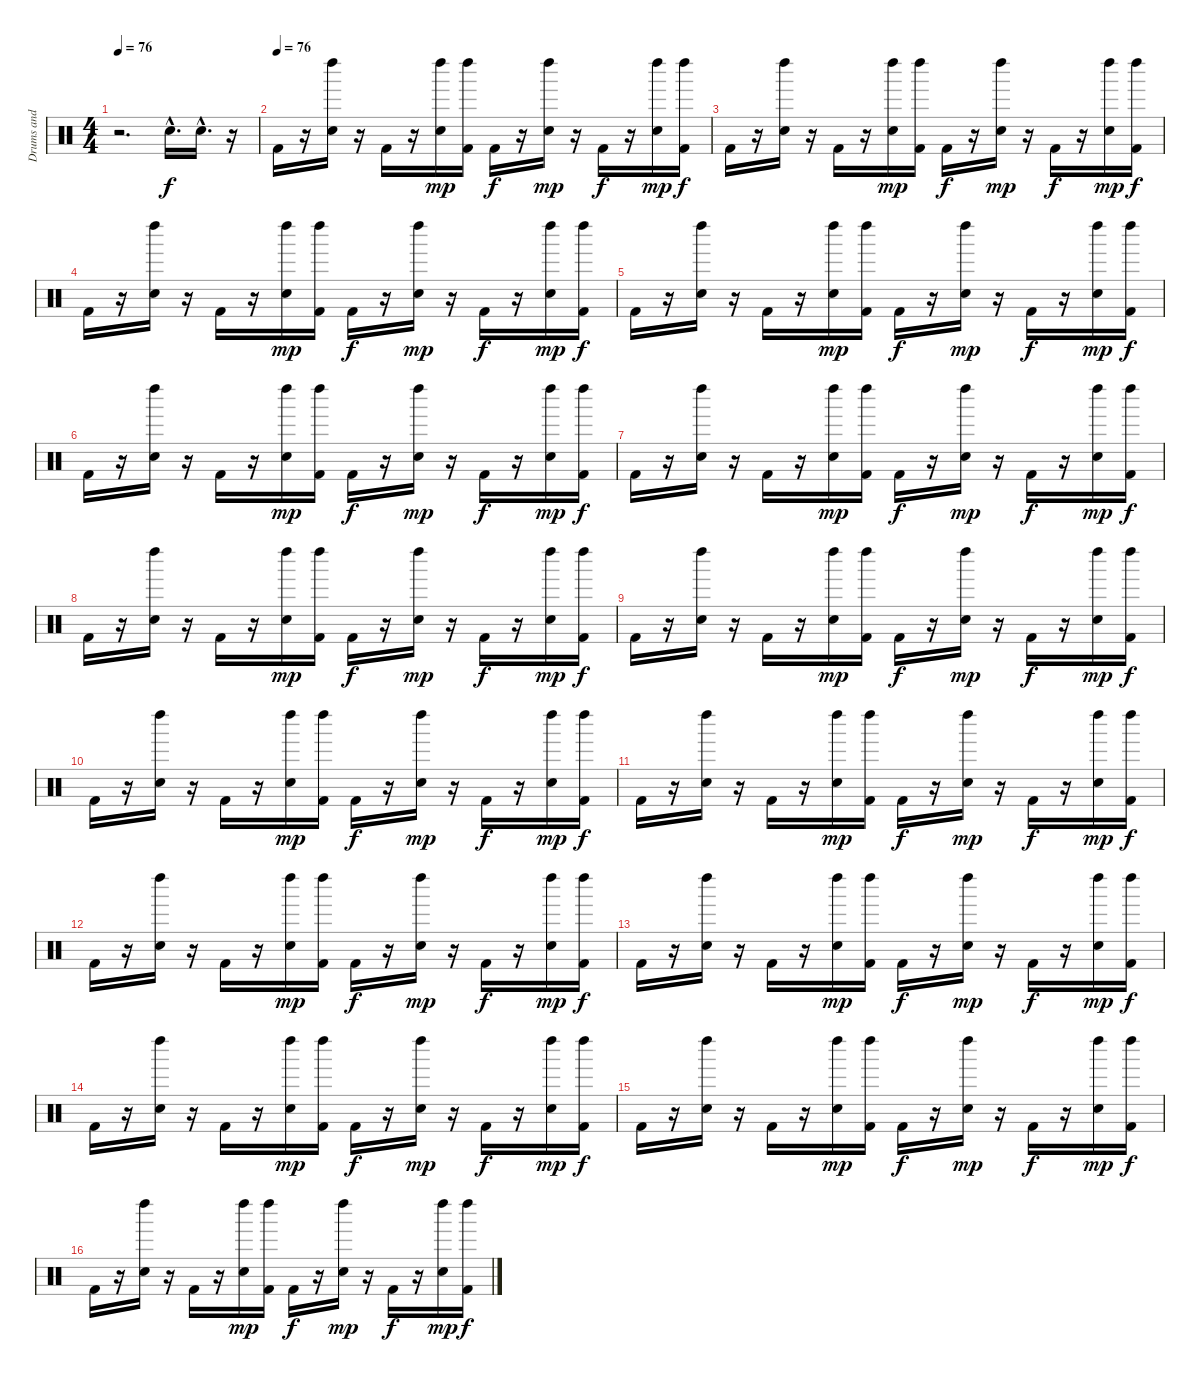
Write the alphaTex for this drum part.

\track ("Drums and Percussion" "Drums and ") {instrument percussion}
\staff {score}
\articulation defaults
\ts (4 4)
\tempo 76
\clef neutral
\ks c
r.2{d dy f} "Snare (hit) 2"{hac}.16{d} "Snare (hit) 2"{hac}.16{d} r.16 |
\tempo (76)
"Kick (hit) 2".16 r.16 ("Snare (hit) 2" "Left Maraca (hit)").16 r.16 "Kick (hit) 2".16 r.16 ("Snare (hit) 2" "Left Maraca (hit)").16{dy mp} ("Left Maraca (hit)" "Kick (hit) 2").16 "Kick (hit) 2".16{dy f} r.16 ("Snare (hit) 2" "Left Maraca (hit)").16{dy mp} r.16 "Kick (hit) 2".16{dy f} r.16 ("Snare (hit) 2" "Left Maraca (hit)").16{dy mp} ("Left Maraca (hit)" "Kick (hit) 2").16{dy f} |
"Kick (hit) 2".16 r.16 ("Snare (hit) 2" "Left Maraca (hit)").16 r.16 "Kick (hit) 2".16 r.16 ("Snare (hit) 2" "Left Maraca (hit)").16{dy mp} ("Left Maraca (hit)" "Kick (hit) 2").16 "Kick (hit) 2".16{dy f} r.16 ("Snare (hit) 2" "Left Maraca (hit)").16{dy mp} r.16 "Kick (hit) 2".16{dy f} r.16 ("Snare (hit) 2" "Left Maraca (hit)").16{dy mp} ("Left Maraca (hit)" "Kick (hit) 2").16{dy f} |
"Kick (hit) 2".16 r.16 ("Snare (hit) 2" "Left Maraca (hit)").16 r.16 "Kick (hit) 2".16 r.16 ("Snare (hit) 2" "Left Maraca (hit)").16{dy mp} ("Left Maraca (hit)" "Kick (hit) 2").16 "Kick (hit) 2".16{dy f} r.16 ("Snare (hit) 2" "Left Maraca (hit)").16{dy mp} r.16 "Kick (hit) 2".16{dy f} r.16 ("Snare (hit) 2" "Left Maraca (hit)").16{dy mp} ("Left Maraca (hit)" "Kick (hit) 2").16{dy f} |
"Kick (hit) 2".16 r.16 ("Snare (hit) 2" "Left Maraca (hit)").16 r.16 "Kick (hit) 2".16 r.16 ("Snare (hit) 2" "Left Maraca (hit)").16{dy mp} ("Left Maraca (hit)" "Kick (hit) 2").16 "Kick (hit) 2".16{dy f} r.16 ("Snare (hit) 2" "Left Maraca (hit)").16{dy mp} r.16 "Kick (hit) 2".16{dy f} r.16 ("Snare (hit) 2" "Left Maraca (hit)").16{dy mp} ("Left Maraca (hit)" "Kick (hit) 2").16{dy f} |
"Kick (hit) 2".16 r.16 ("Snare (hit) 2" "Left Maraca (hit)").16 r.16 "Kick (hit) 2".16 r.16 ("Snare (hit) 2" "Left Maraca (hit)").16{dy mp} ("Left Maraca (hit)" "Kick (hit) 2").16 "Kick (hit) 2".16{dy f} r.16 ("Snare (hit) 2" "Left Maraca (hit)").16{dy mp} r.16 "Kick (hit) 2".16{dy f} r.16 ("Snare (hit) 2" "Left Maraca (hit)").16{dy mp} ("Left Maraca (hit)" "Kick (hit) 2").16{dy f} |
"Kick (hit) 2".16 r.16 ("Snare (hit) 2" "Left Maraca (hit)").16 r.16 "Kick (hit) 2".16 r.16 ("Snare (hit) 2" "Left Maraca (hit)").16{dy mp} ("Left Maraca (hit)" "Kick (hit) 2").16 "Kick (hit) 2".16{dy f} r.16 ("Snare (hit) 2" "Left Maraca (hit)").16{dy mp} r.16 "Kick (hit) 2".16{dy f} r.16 ("Snare (hit) 2" "Left Maraca (hit)").16{dy mp} ("Left Maraca (hit)" "Kick (hit) 2").16{dy f} |
"Kick (hit) 2".16 r.16 ("Snare (hit) 2" "Left Maraca (hit)").16 r.16 "Kick (hit) 2".16 r.16 ("Snare (hit) 2" "Left Maraca (hit)").16{dy mp} ("Left Maraca (hit)" "Kick (hit) 2").16 "Kick (hit) 2".16{dy f} r.16 ("Snare (hit) 2" "Left Maraca (hit)").16{dy mp} r.16 "Kick (hit) 2".16{dy f} r.16 ("Snare (hit) 2" "Left Maraca (hit)").16{dy mp} ("Left Maraca (hit)" "Kick (hit) 2").16{dy f} |
"Kick (hit) 2".16 r.16 ("Snare (hit) 2" "Left Maraca (hit)").16 r.16 "Kick (hit) 2".16 r.16 ("Snare (hit) 2" "Left Maraca (hit)").16{dy mp} ("Left Maraca (hit)" "Kick (hit) 2").16 "Kick (hit) 2".16{dy f} r.16 ("Snare (hit) 2" "Left Maraca (hit)").16{dy mp} r.16 "Kick (hit) 2".16{dy f} r.16 ("Snare (hit) 2" "Left Maraca (hit)").16{dy mp} ("Left Maraca (hit)" "Kick (hit) 2").16{dy f} |
"Kick (hit) 2".16 r.16 ("Snare (hit) 2" "Left Maraca (hit)").16 r.16 "Kick (hit) 2".16 r.16 ("Snare (hit) 2" "Left Maraca (hit)").16{dy mp} ("Left Maraca (hit)" "Kick (hit) 2").16 "Kick (hit) 2".16{dy f} r.16 ("Snare (hit) 2" "Left Maraca (hit)").16{dy mp} r.16 "Kick (hit) 2".16{dy f} r.16 ("Snare (hit) 2" "Left Maraca (hit)").16{dy mp} ("Left Maraca (hit)" "Kick (hit) 2").16{dy f} |
"Kick (hit) 2".16 r.16 ("Snare (hit) 2" "Left Maraca (hit)").16 r.16 "Kick (hit) 2".16 r.16 ("Snare (hit) 2" "Left Maraca (hit)").16{dy mp} ("Left Maraca (hit)" "Kick (hit) 2").16 "Kick (hit) 2".16{dy f} r.16 ("Snare (hit) 2" "Left Maraca (hit)").16{dy mp} r.16 "Kick (hit) 2".16{dy f} r.16 ("Snare (hit) 2" "Left Maraca (hit)").16{dy mp} ("Left Maraca (hit)" "Kick (hit) 2").16{dy f} |
"Kick (hit) 2".16 r.16 ("Snare (hit) 2" "Left Maraca (hit)").16 r.16 "Kick (hit) 2".16 r.16 ("Snare (hit) 2" "Left Maraca (hit)").16{dy mp} ("Left Maraca (hit)" "Kick (hit) 2").16 "Kick (hit) 2".16{dy f} r.16 ("Snare (hit) 2" "Left Maraca (hit)").16{dy mp} r.16 "Kick (hit) 2".16{dy f} r.16 ("Snare (hit) 2" "Left Maraca (hit)").16{dy mp} ("Left Maraca (hit)" "Kick (hit) 2").16{dy f} |
"Kick (hit) 2".16 r.16 ("Snare (hit) 2" "Left Maraca (hit)").16 r.16 "Kick (hit) 2".16 r.16 ("Snare (hit) 2" "Left Maraca (hit)").16{dy mp} ("Left Maraca (hit)" "Kick (hit) 2").16 "Kick (hit) 2".16{dy f} r.16 ("Snare (hit) 2" "Left Maraca (hit)").16{dy mp} r.16 "Kick (hit) 2".16{dy f} r.16 ("Snare (hit) 2" "Left Maraca (hit)").16{dy mp} ("Left Maraca (hit)" "Kick (hit) 2").16{dy f} |
"Kick (hit) 2".16 r.16 ("Snare (hit) 2" "Left Maraca (hit)").16 r.16 "Kick (hit) 2".16 r.16 ("Snare (hit) 2" "Left Maraca (hit)").16{dy mp} ("Left Maraca (hit)" "Kick (hit) 2").16 "Kick (hit) 2".16{dy f} r.16 ("Snare (hit) 2" "Left Maraca (hit)").16{dy mp} r.16 "Kick (hit) 2".16{dy f} r.16 ("Snare (hit) 2" "Left Maraca (hit)").16{dy mp} ("Left Maraca (hit)" "Kick (hit) 2").16{dy f} |
"Kick (hit) 2".16 r.16 ("Snare (hit) 2" "Left Maraca (hit)").16 r.16 "Kick (hit) 2".16 r.16 ("Snare (hit) 2" "Left Maraca (hit)").16{dy mp} ("Left Maraca (hit)" "Kick (hit) 2").16 "Kick (hit) 2".16{dy f} r.16 ("Snare (hit) 2" "Left Maraca (hit)").16{dy mp} r.16 "Kick (hit) 2".16{dy f} r.16 ("Snare (hit) 2" "Left Maraca (hit)").16{dy mp} ("Left Maraca (hit)" "Kick (hit) 2").16{dy f} |
"Kick (hit) 2".16 r.16 ("Snare (hit) 2" "Left Maraca (hit)").16 r.16 "Kick (hit) 2".16 r.16 ("Snare (hit) 2" "Left Maraca (hit)").16{dy mp} ("Left Maraca (hit)" "Kick (hit) 2").16 "Kick (hit) 2".16{dy f} r.16 ("Snare (hit) 2" "Left Maraca (hit)").16{dy mp} r.16 "Kick (hit) 2".16{dy f} r.16 ("Snare (hit) 2" "Left Maraca (hit)").16{dy mp} ("Left Maraca (hit)" "Kick (hit) 2").16{dy f}
